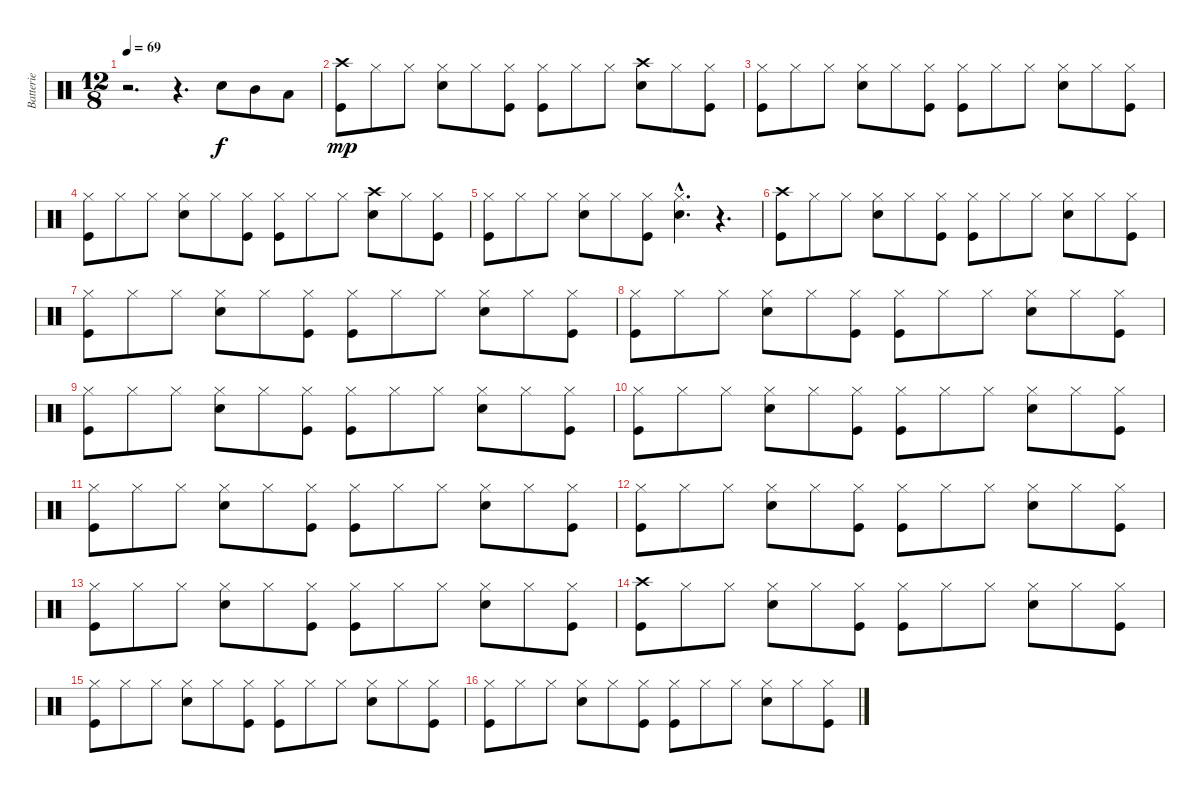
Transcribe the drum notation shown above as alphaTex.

\track ("Batterie" "Batterie") {instrument percussion}
\staff {score}
\articulation defaults
\ts (12 8)
\tempo 69
\clef neutral
\ks c
r.2{d dy f} r.4{d} "Snare (hit) 2".8 "Mid Tom (hit)".8 "Low Tom (hit)".8 |
("Crash high (hit)" "Kick (hit)").8{dy mp} "Hi-Hat (closed)".8 "Hi-Hat (closed)".8 ("Hi-Hat (closed)" "Snare (hit) 2").8 "Hi-Hat (closed)".8 ("Hi-Hat (closed)" "Kick (hit)").8 ("Hi-Hat (closed)" "Kick (hit)").8 "Hi-Hat (closed)".8 "Hi-Hat (closed)".8 ("Crash high (hit)" "Snare (hit) 2").8 "Hi-Hat (closed)".8 ("Hi-Hat (closed)" "Kick (hit)").8 |
("Hi-Hat (closed)" "Kick (hit)").8 "Hi-Hat (closed)".8 "Hi-Hat (closed)".8 ("Hi-Hat (closed)" "Snare (hit) 2").8 "Hi-Hat (closed)".8 ("Hi-Hat (closed)" "Kick (hit)").8 ("Hi-Hat (closed)" "Kick (hit)").8 "Hi-Hat (closed)".8 "Hi-Hat (closed)".8 ("Hi-Hat (closed)" "Snare (hit) 2").8 "Hi-Hat (closed)".8 ("Hi-Hat (closed)" "Kick (hit)").8 |
("Hi-Hat (closed)" "Kick (hit)").8 "Hi-Hat (closed)".8 "Hi-Hat (closed)".8 ("Hi-Hat (closed)" "Snare (hit) 2").8 "Hi-Hat (closed)".8 ("Hi-Hat (closed)" "Kick (hit)").8 ("Hi-Hat (closed)" "Kick (hit)").8 "Hi-Hat (closed)".8 "Hi-Hat (closed)".8 ("Crash high (hit)" "Snare (hit) 2").8 "Hi-Hat (closed)".8 ("Hi-Hat (closed)" "Kick (hit)").8 |
("Hi-Hat (closed)" "Kick (hit)").8 "Hi-Hat (closed)".8 "Hi-Hat (closed)".8 ("Hi-Hat (closed)" "Snare (hit) 2").8 "Hi-Hat (closed)".8 ("Hi-Hat (closed)" "Kick (hit)").8 ("Hi-Hat (closed)"{hac} "Snare (hit) 2"{hac}).4{d} r.4{d} |
("Crash high (hit)" "Kick (hit)").8 "Hi-Hat (closed)".8 "Hi-Hat (closed)".8 ("Hi-Hat (closed)" "Snare (hit) 2").8 "Hi-Hat (closed)".8 ("Hi-Hat (closed)" "Kick (hit)").8 ("Hi-Hat (closed)" "Kick (hit)").8 "Hi-Hat (closed)".8 "Hi-Hat (closed)".8 ("Hi-Hat (closed)" "Snare (hit) 2").8 "Hi-Hat (closed)".8 ("Hi-Hat (closed)" "Kick (hit)").8 |
("Hi-Hat (closed)" "Kick (hit)").8 "Hi-Hat (closed)".8 "Hi-Hat (closed)".8 ("Hi-Hat (closed)" "Snare (hit) 2").8 "Hi-Hat (closed)".8 ("Hi-Hat (closed)" "Kick (hit)").8 ("Hi-Hat (closed)" "Kick (hit)").8 "Hi-Hat (closed)".8 "Hi-Hat (closed)".8 ("Hi-Hat (closed)" "Snare (hit) 2").8 "Hi-Hat (closed)".8 ("Hi-Hat (closed)" "Kick (hit)").8 |
("Hi-Hat (closed)" "Kick (hit)").8 "Hi-Hat (closed)".8 "Hi-Hat (closed)".8 ("Hi-Hat (closed)" "Snare (hit) 2").8 "Hi-Hat (closed)".8 ("Hi-Hat (closed)" "Kick (hit)").8 ("Hi-Hat (closed)" "Kick (hit)").8 "Hi-Hat (closed)".8 "Hi-Hat (closed)".8 ("Hi-Hat (closed)" "Snare (hit) 2").8 "Hi-Hat (closed)".8 ("Hi-Hat (closed)" "Kick (hit)").8 |
("Hi-Hat (closed)" "Kick (hit)").8 "Hi-Hat (closed)".8 "Hi-Hat (closed)".8 ("Hi-Hat (closed)" "Snare (hit) 2").8 "Hi-Hat (closed)".8 ("Hi-Hat (closed)" "Kick (hit)").8 ("Hi-Hat (closed)" "Kick (hit)").8 "Hi-Hat (closed)".8 "Hi-Hat (closed)".8 ("Hi-Hat (closed)" "Snare (hit) 2").8 "Hi-Hat (closed)".8 ("Hi-Hat (closed)" "Kick (hit)").8 |
("Hi-Hat (closed)" "Kick (hit)").8 "Hi-Hat (closed)".8 "Hi-Hat (closed)".8 ("Hi-Hat (closed)" "Snare (hit) 2").8 "Hi-Hat (closed)".8 ("Hi-Hat (closed)" "Kick (hit)").8 ("Hi-Hat (closed)" "Kick (hit)").8 "Hi-Hat (closed)".8 "Hi-Hat (closed)".8 ("Hi-Hat (closed)" "Snare (hit) 2").8 "Hi-Hat (closed)".8 ("Hi-Hat (closed)" "Kick (hit)").8 |
("Hi-Hat (closed)" "Kick (hit)").8 "Hi-Hat (closed)".8 "Hi-Hat (closed)".8 ("Hi-Hat (closed)" "Snare (hit) 2").8 "Hi-Hat (closed)".8 ("Hi-Hat (closed)" "Kick (hit)").8 ("Hi-Hat (closed)" "Kick (hit)").8 "Hi-Hat (closed)".8 "Hi-Hat (closed)".8 ("Hi-Hat (closed)" "Snare (hit) 2").8 "Hi-Hat (closed)".8 ("Hi-Hat (closed)" "Kick (hit)").8 |
("Hi-Hat (closed)" "Kick (hit)").8 "Hi-Hat (closed)".8 "Hi-Hat (closed)".8 ("Hi-Hat (closed)" "Snare (hit) 2").8 "Hi-Hat (closed)".8 ("Hi-Hat (closed)" "Kick (hit)").8 ("Hi-Hat (closed)" "Kick (hit)").8 "Hi-Hat (closed)".8 "Hi-Hat (closed)".8 ("Hi-Hat (closed)" "Snare (hit) 2").8 "Hi-Hat (closed)".8 ("Hi-Hat (closed)" "Kick (hit)").8 |
("Hi-Hat (closed)" "Kick (hit)").8 "Hi-Hat (closed)".8 "Hi-Hat (closed)".8 ("Hi-Hat (closed)" "Snare (hit) 2").8 "Hi-Hat (closed)".8 ("Hi-Hat (closed)" "Kick (hit)").8 ("Hi-Hat (closed)" "Kick (hit)").8 "Hi-Hat (closed)".8 "Hi-Hat (closed)".8 ("Hi-Hat (closed)" "Snare (hit) 2").8 "Hi-Hat (closed)".8 ("Hi-Hat (closed)" "Kick (hit)").8 |
("Crash high (hit)" "Kick (hit)").8 "Hi-Hat (closed)".8 "Hi-Hat (closed)".8 ("Hi-Hat (closed)" "Snare (hit) 2").8 "Hi-Hat (closed)".8 ("Hi-Hat (closed)" "Kick (hit)").8 ("Hi-Hat (closed)" "Kick (hit)").8 "Hi-Hat (closed)".8 "Hi-Hat (closed)".8 ("Hi-Hat (closed)" "Snare (hit) 2").8 "Hi-Hat (closed)".8 ("Hi-Hat (closed)" "Kick (hit)").8 |
("Hi-Hat (closed)" "Kick (hit)").8 "Hi-Hat (closed)".8 "Hi-Hat (closed)".8 ("Hi-Hat (closed)" "Snare (hit) 2").8 "Hi-Hat (closed)".8 ("Hi-Hat (closed)" "Kick (hit)").8 ("Hi-Hat (closed)" "Kick (hit)").8 "Hi-Hat (closed)".8 "Hi-Hat (closed)".8 ("Hi-Hat (closed)" "Snare (hit) 2").8 "Hi-Hat (closed)".8 ("Hi-Hat (closed)" "Kick (hit)").8 |
("Hi-Hat (closed)" "Kick (hit)").8 "Hi-Hat (closed)".8 "Hi-Hat (closed)".8 ("Hi-Hat (closed)" "Snare (hit) 2").8 "Hi-Hat (closed)".8 ("Hi-Hat (closed)" "Kick (hit)").8 ("Hi-Hat (closed)" "Kick (hit)").8 "Hi-Hat (closed)".8 "Hi-Hat (closed)".8 ("Hi-Hat (closed)" "Snare (hit) 2").8 "Hi-Hat (closed)".8 ("Hi-Hat (closed)" "Kick (hit)").8
